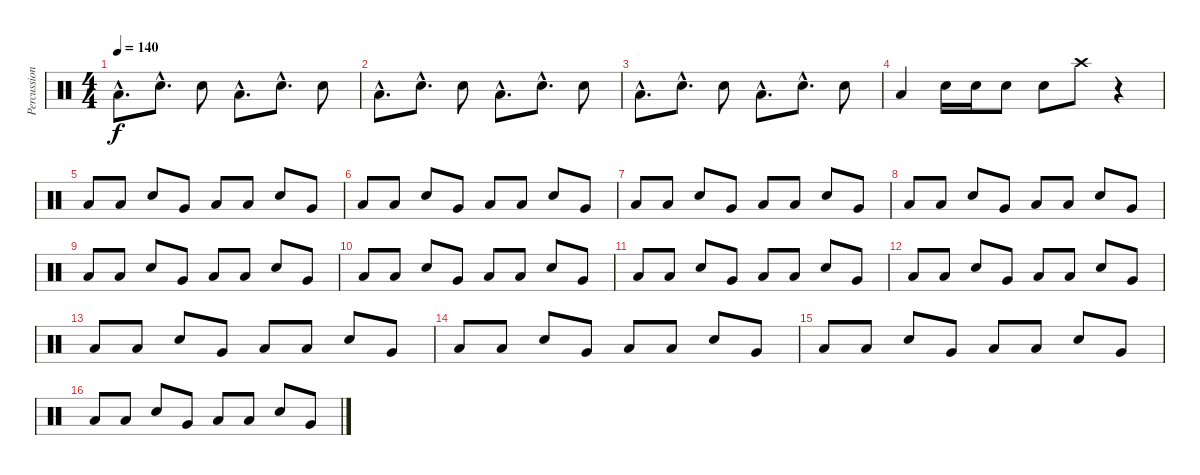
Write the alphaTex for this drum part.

\track ("Percussions" "Percussion") {instrument percussion}
\staff {score}
\articulation defaults
\ts (4 4)
\tempo 140
\clef neutral
\ks c "Low Tom (hit)"{hac}.8{d dy f} "Electric Snare (hit)"{hac}.8{d} "Electric Snare (hit)".8 "Low Tom (hit)"{hac}.8{d} "Electric Snare (hit)"{hac}.8{d} "Electric Snare (hit)".8
|
"Low Tom (hit)"{hac}.8{d} "Electric Snare (hit)"{hac}.8{d} "Electric Snare (hit)".8 "Low Tom (hit)"{hac}.8{d} "Electric Snare (hit)"{hac}.8{d} "Electric Snare (hit)".8 |
"Low Tom (hit)"{hac}.8{d} "Electric Snare (hit)"{hac}.8{d} "Electric Snare (hit)".8 "Low Tom (hit)"{hac}.8{d} "Electric Snare (hit)"{hac}.8{d} "Electric Snare (hit)".8 |
"Low Tom (hit)".4 "Electric Snare (hit)".16 "Electric Snare (hit)".16 "Electric Snare (hit)".8 "Electric Snare (hit)".8 "Crash high (hit)".8 r.4 |
"Low Floor Tom (hit)".8 "Low Floor Tom (hit)".8 "Electric Snare (hit)".8 "Very Low Tom (hit)".8 "Low Floor Tom (hit)".8 "Low Floor Tom (hit)".8 "Electric Snare (hit)".8 "Very Low Tom (hit)".8 |
"Low Floor Tom (hit)".8 "Low Floor Tom (hit)".8 "Electric Snare (hit)".8 "Very Low Tom (hit)".8 "Low Floor Tom (hit)".8 "Low Floor Tom (hit)".8 "Electric Snare (hit)".8 "Very Low Tom (hit)".8 |
"Low Floor Tom (hit)".8 "Low Floor Tom (hit)".8 "Electric Snare (hit)".8 "Very Low Tom (hit)".8 "Low Floor Tom (hit)".8 "Low Floor Tom (hit)".8 "Electric Snare (hit)".8 "Very Low Tom (hit)".8 |
"Low Floor Tom (hit)".8 "Low Floor Tom (hit)".8 "Electric Snare (hit)".8 "Very Low Tom (hit)".8 "Low Floor Tom (hit)".8 "Low Floor Tom (hit)".8 "Electric Snare (hit)".8 "Very Low Tom (hit)".8 |
"Low Floor Tom (hit)".8 "Low Floor Tom (hit)".8 "Electric Snare (hit)".8 "Very Low Tom (hit)".8 "Low Floor Tom (hit)".8 "Low Floor Tom (hit)".8 "Electric Snare (hit)".8 "Very Low Tom (hit)".8 |
"Low Floor Tom (hit)".8 "Low Floor Tom (hit)".8 "Electric Snare (hit)".8 "Very Low Tom (hit)".8 "Low Floor Tom (hit)".8 "Low Floor Tom (hit)".8 "Electric Snare (hit)".8 "Very Low Tom (hit)".8 |
"Low Floor Tom (hit)".8 "Low Floor Tom (hit)".8 "Electric Snare (hit)".8 "Very Low Tom (hit)".8 "Low Floor Tom (hit)".8 "Low Floor Tom (hit)".8 "Electric Snare (hit)".8 "Very Low Tom (hit)".8 |
"Low Floor Tom (hit)".8 "Low Floor Tom (hit)".8 "Electric Snare (hit)".8 "Very Low Tom (hit)".8 "Low Floor Tom (hit)".8 "Low Floor Tom (hit)".8 "Electric Snare (hit)".8 "Very Low Tom (hit)".8 |
"Low Floor Tom (hit)".8 "Low Floor Tom (hit)".8 "Electric Snare (hit)".8 "Very Low Tom (hit)".8 "Low Floor Tom (hit)".8 "Low Floor Tom (hit)".8 "Electric Snare (hit)".8 "Very Low Tom (hit)".8 |
"Low Floor Tom (hit)".8 "Low Floor Tom (hit)".8 "Electric Snare (hit)".8 "Very Low Tom (hit)".8 "Low Floor Tom (hit)".8 "Low Floor Tom (hit)".8 "Electric Snare (hit)".8 "Very Low Tom (hit)".8 |
"Low Floor Tom (hit)".8 "Low Floor Tom (hit)".8 "Electric Snare (hit)".8 "Very Low Tom (hit)".8 "Low Floor Tom (hit)".8 "Low Floor Tom (hit)".8 "Electric Snare (hit)".8 "Very Low Tom (hit)".8 |
"Low Floor Tom (hit)".8 "Low Floor Tom (hit)".8 "Electric Snare (hit)".8 "Very Low Tom (hit)".8 "Low Floor Tom (hit)".8 "Low Floor Tom (hit)".8 "Electric Snare (hit)".8 "Very Low Tom (hit)".8
